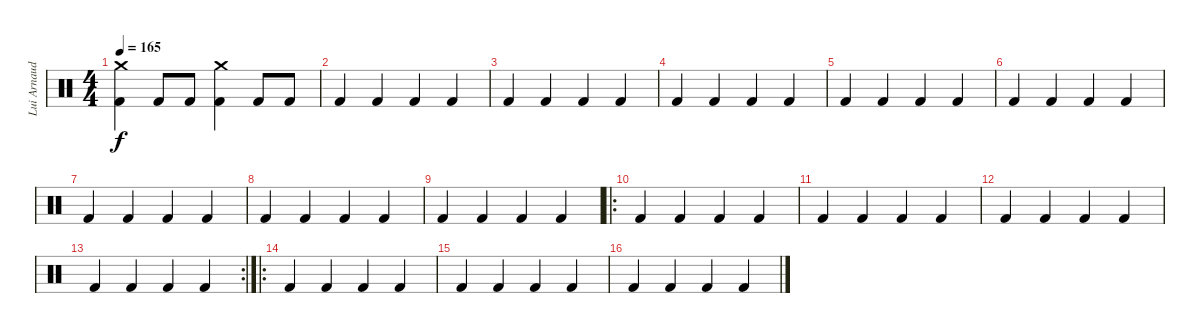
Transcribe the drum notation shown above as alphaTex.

\track ("Lui Arnaudin" "Lui Arnaud") {instrument percussion}
\staff {score}
\articulation defaults
\ts (4 4)
\tempo 165
\clef neutral
\ks c
("Kick (hit) 2" "Crash medium (hit)").4{dy f} "Kick (hit) 2".8 "Kick (hit) 2".8 ("Kick (hit) 2" "Crash medium (hit)").4 "Kick (hit) 2".8 "Kick (hit) 2".8 |
"Kick (hit) 2".4 "Kick (hit) 2".4 "Kick (hit) 2".4 "Kick (hit) 2".4 |
"Kick (hit) 2".4 "Kick (hit) 2".4 "Kick (hit) 2".4 "Kick (hit) 2".4 |
"Kick (hit) 2".4 "Kick (hit) 2".4 "Kick (hit) 2".4 "Kick (hit) 2".4 |
"Kick (hit) 2".4 "Kick (hit) 2".4 "Kick (hit) 2".4 "Kick (hit) 2".4 |
"Kick (hit) 2".4 "Kick (hit) 2".4 "Kick (hit) 2".4 "Kick (hit) 2".4 |
"Kick (hit) 2".4 "Kick (hit) 2".4 "Kick (hit) 2".4 "Kick (hit) 2".4 |
"Kick (hit) 2".4 "Kick (hit) 2".4 "Kick (hit) 2".4 "Kick (hit) 2".4 |
"Kick (hit) 2".4 "Kick (hit) 2".4 "Kick (hit) 2".4 "Kick (hit) 2".4 |
\ro "Kick (hit) 2".4 "Kick (hit) 2".4 "Kick (hit) 2".4 "Kick (hit) 2".4
|
"Kick (hit) 2".4 "Kick (hit) 2".4 "Kick (hit) 2".4 "Kick (hit) 2".4 |
"Kick (hit) 2".4 "Kick (hit) 2".4 "Kick (hit) 2".4 "Kick (hit) 2".4 |
\rc 2 "Kick (hit) 2".4 "Kick (hit) 2".4 "Kick (hit) 2".4 "Kick (hit) 2".4
|
\ro "Kick (hit) 2".4 "Kick (hit) 2".4 "Kick (hit) 2".4 "Kick (hit) 2".4
|
"Kick (hit) 2".4 "Kick (hit) 2".4 "Kick (hit) 2".4 "Kick (hit) 2".4 |
"Kick (hit) 2".4 "Kick (hit) 2".4 "Kick (hit) 2".4 "Kick (hit) 2".4
